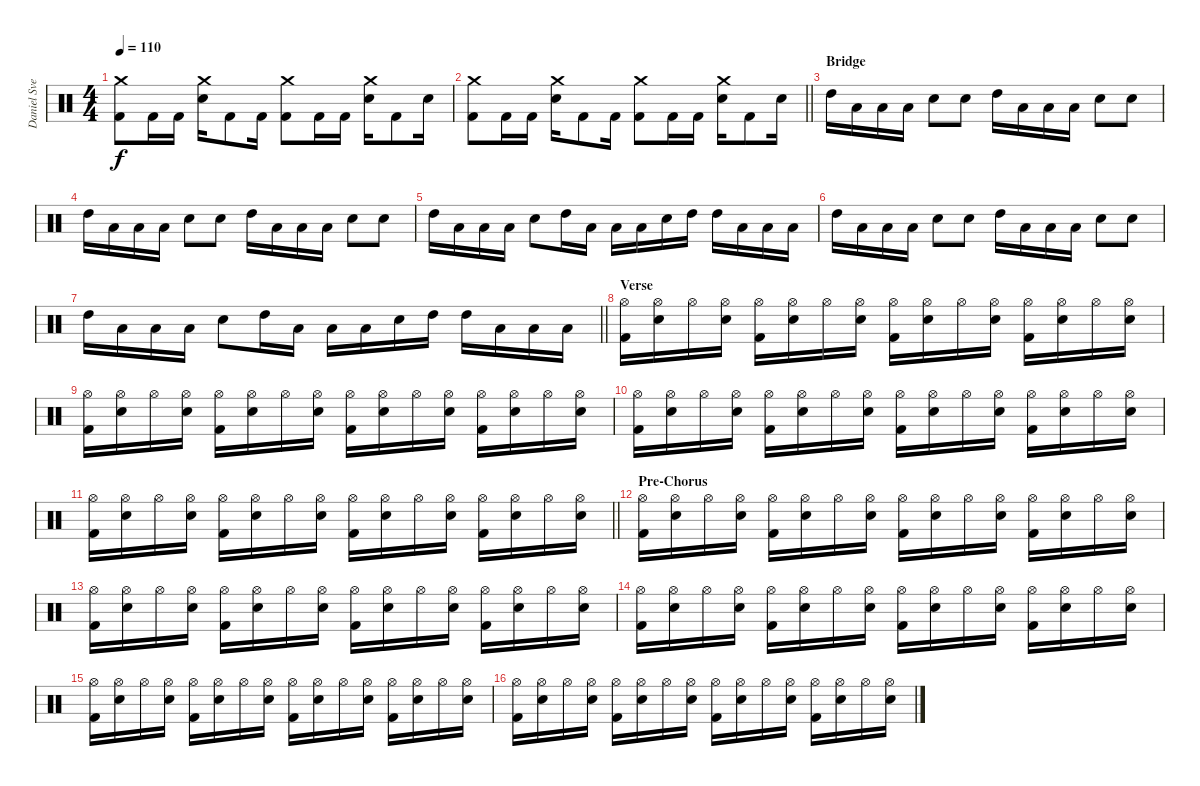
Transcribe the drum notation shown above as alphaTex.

\track ("Daniel Svennson" "Daniel Sve") {instrument percussion}
\staff {score}
\articulation defaults
\ts (4 4)
\tempo 110
\clef neutral
\ks c
("Kick (hit) 2" "Crash medium (hit)").8{dy f} "Kick (hit) 2".16 "Kick (hit) 2".16 ("Snare (hit) 2" "Crash medium (hit)").16 "Kick (hit) 2".8 "Kick (hit) 2".16 ("Kick (hit) 2" "Crash medium (hit)").8 "Kick (hit) 2".16 "Kick (hit) 2".16 ("Snare (hit) 2" "Crash medium (hit)").16 "Kick (hit) 2".8 "Snare (hit) 2".16 |
\barLineRight lightlight
("Kick (hit) 2" "Crash medium (hit)").8 "Kick (hit) 2".16 "Kick (hit) 2".16 ("Snare (hit) 2" "Crash medium (hit)").16 "Kick (hit) 2".8 "Kick (hit) 2".16 ("Kick (hit) 2" "Crash medium (hit)").8 "Kick (hit) 2".16 "Kick (hit) 2".16 ("Snare (hit) 2" "Crash medium (hit)").16 "Kick (hit) 2".8 "Snare (hit) 2".16 |
\section ("" "Bridge")
"High Tom (hit)".16 "Low Tom (hit)".16 "Low Floor Tom (hit)".16 "Low Floor Tom (hit)".16 "Snare (hit) 2".8 "Snare (hit) 2".8 "High Tom (hit)".16 "Low Tom (hit)".16 "Low Floor Tom (hit)".16 "Low Floor Tom (hit)".16 "Snare (hit) 2".8 "Snare (hit) 2".8 |
"High Tom (hit)".16 "Low Tom (hit)".16 "Low Floor Tom (hit)".16 "Low Floor Tom (hit)".16 "Snare (hit) 2".8 "Snare (hit) 2".8 "High Tom (hit)".16 "Low Tom (hit)".16 "Low Floor Tom (hit)".16 "Low Floor Tom (hit)".16 "Snare (hit) 2".8 "Snare (hit) 2".8 |
"High Tom (hit)".16 "Low Tom (hit)".16 "Low Floor Tom (hit)".16 "Low Floor Tom (hit)".16 "Snare (hit) 2".8 "High Tom (hit)".16 "Low Tom (hit)".16 "Low Floor Tom (hit)".16 "Low Floor Tom (hit)".16 "Snare (hit) 2".16 "High Tom (hit)".16 "High Tom (hit)".16 "Low Tom (hit)".16 "Low Tom (hit)".16 "Low Floor Tom (hit)".16 |
"High Tom (hit)".16 "Low Tom (hit)".16 "Low Floor Tom (hit)".16 "Low Floor Tom (hit)".16 "Snare (hit) 2".8 "Snare (hit) 2".8 "High Tom (hit)".16 "Low Tom (hit)".16 "Low Floor Tom (hit)".16 "Low Floor Tom (hit)".16 "Snare (hit) 2".8 "Snare (hit) 2".8 |
\barLineRight lightlight "High Tom (hit)".16 "Low Tom (hit)".16 "Low Floor Tom (hit)".16 "Low Floor Tom (hit)".16 "Snare (hit) 2".8 "High Tom (hit)".16 "Low Tom (hit)".16 "Low Floor Tom (hit)".16 "Low Floor Tom (hit)".16 "Snare (hit) 2".16 "High Tom (hit)".16 "High Tom (hit)".16 "Low Tom (hit)".16 "Low Tom (hit)".16 "Low Floor Tom (hit)".16
|
\section ("" "Verse")
("Hi-Hat (open)" "Kick (hit) 2").16 ("Hi-Hat (open)" "Snare (hit) 2").16 "Hi-Hat (open)".16 ("Hi-Hat (open)" "Snare (hit) 2").16 ("Hi-Hat (open)" "Kick (hit) 2").16 ("Hi-Hat (open)" "Snare (hit) 2").16 "Hi-Hat (open)".16 ("Hi-Hat (open)" "Snare (hit) 2").16 ("Hi-Hat (open)" "Kick (hit) 2").16 ("Hi-Hat (open)" "Snare (hit) 2").16 "Hi-Hat (open)".16 ("Hi-Hat (open)" "Snare (hit) 2").16 ("Hi-Hat (open)" "Kick (hit) 2").16 ("Hi-Hat (open)" "Snare (hit) 2").16 "Hi-Hat (open)".16 ("Hi-Hat (open)" "Snare (hit) 2").16 |
("Hi-Hat (open)" "Kick (hit) 2").16 ("Hi-Hat (open)" "Snare (hit) 2").16 "Hi-Hat (open)".16 ("Hi-Hat (open)" "Snare (hit) 2").16 ("Hi-Hat (open)" "Kick (hit) 2").16 ("Hi-Hat (open)" "Snare (hit) 2").16 "Hi-Hat (open)".16 ("Hi-Hat (open)" "Snare (hit) 2").16 ("Hi-Hat (open)" "Kick (hit) 2").16 ("Hi-Hat (open)" "Snare (hit) 2").16 "Hi-Hat (open)".16 ("Hi-Hat (open)" "Snare (hit) 2").16 ("Hi-Hat (open)" "Kick (hit) 2").16 ("Hi-Hat (open)" "Snare (hit) 2").16 "Hi-Hat (open)".16 ("Hi-Hat (open)" "Snare (hit) 2").16 |
("Hi-Hat (open)" "Kick (hit) 2").16 ("Hi-Hat (open)" "Snare (hit) 2").16 "Hi-Hat (open)".16 ("Hi-Hat (open)" "Snare (hit) 2").16 ("Hi-Hat (open)" "Kick (hit) 2").16 ("Hi-Hat (open)" "Snare (hit) 2").16 "Hi-Hat (open)".16 ("Hi-Hat (open)" "Snare (hit) 2").16 ("Hi-Hat (open)" "Kick (hit) 2").16 ("Hi-Hat (open)" "Snare (hit) 2").16 "Hi-Hat (open)".16 ("Hi-Hat (open)" "Snare (hit) 2").16 ("Hi-Hat (open)" "Kick (hit) 2").16 ("Hi-Hat (open)" "Snare (hit) 2").16 "Hi-Hat (open)".16 ("Hi-Hat (open)" "Snare (hit) 2").16 |
\barLineRight lightlight
("Hi-Hat (open)" "Kick (hit) 2").16 ("Hi-Hat (open)" "Snare (hit) 2").16 "Hi-Hat (open)".16 ("Hi-Hat (open)" "Snare (hit) 2").16 ("Hi-Hat (open)" "Kick (hit) 2").16 ("Hi-Hat (open)" "Snare (hit) 2").16 "Hi-Hat (open)".16 ("Hi-Hat (open)" "Snare (hit) 2").16 ("Hi-Hat (open)" "Kick (hit) 2").16 ("Hi-Hat (open)" "Snare (hit) 2").16 "Hi-Hat (open)".16 ("Hi-Hat (open)" "Snare (hit) 2").16 ("Hi-Hat (open)" "Kick (hit) 2").16 ("Hi-Hat (open)" "Snare (hit) 2").16 "Hi-Hat (open)".16 ("Hi-Hat (open)" "Snare (hit) 2").16 |
\section ("" "Pre-Chorus")
("Hi-Hat (open)" "Kick (hit) 2").16 ("Hi-Hat (open)" "Snare (hit) 2").16 "Hi-Hat (open)".16 ("Hi-Hat (open)" "Snare (hit) 2").16 ("Hi-Hat (open)" "Kick (hit) 2").16 ("Hi-Hat (open)" "Snare (hit) 2").16 "Hi-Hat (open)".16 ("Hi-Hat (open)" "Snare (hit) 2").16 ("Hi-Hat (open)" "Kick (hit) 2").16 ("Hi-Hat (open)" "Snare (hit) 2").16 "Hi-Hat (open)".16 ("Hi-Hat (open)" "Snare (hit) 2").16 ("Hi-Hat (open)" "Kick (hit) 2").16 ("Hi-Hat (open)" "Snare (hit) 2").16 "Hi-Hat (open)".16 ("Hi-Hat (open)" "Snare (hit) 2").16 |
("Hi-Hat (open)" "Kick (hit) 2").16 ("Hi-Hat (open)" "Snare (hit) 2").16 "Hi-Hat (open)".16 ("Hi-Hat (open)" "Snare (hit) 2").16 ("Hi-Hat (open)" "Kick (hit) 2").16 ("Hi-Hat (open)" "Snare (hit) 2").16 "Hi-Hat (open)".16 ("Hi-Hat (open)" "Snare (hit) 2").16 ("Hi-Hat (open)" "Kick (hit) 2").16 ("Hi-Hat (open)" "Snare (hit) 2").16 "Hi-Hat (open)".16 ("Hi-Hat (open)" "Snare (hit) 2").16 ("Hi-Hat (open)" "Kick (hit) 2").16 ("Hi-Hat (open)" "Snare (hit) 2").16 "Hi-Hat (open)".16 ("Hi-Hat (open)" "Snare (hit) 2").16 |
("Hi-Hat (open)" "Kick (hit) 2").16 ("Hi-Hat (open)" "Snare (hit) 2").16 "Hi-Hat (open)".16 ("Hi-Hat (open)" "Snare (hit) 2").16 ("Hi-Hat (open)" "Kick (hit) 2").16 ("Hi-Hat (open)" "Snare (hit) 2").16 "Hi-Hat (open)".16 ("Hi-Hat (open)" "Snare (hit) 2").16 ("Hi-Hat (open)" "Kick (hit) 2").16 ("Hi-Hat (open)" "Snare (hit) 2").16 "Hi-Hat (open)".16 ("Hi-Hat (open)" "Snare (hit) 2").16 ("Hi-Hat (open)" "Kick (hit) 2").16 ("Hi-Hat (open)" "Snare (hit) 2").16 "Hi-Hat (open)".16 ("Hi-Hat (open)" "Snare (hit) 2").16 |
("Hi-Hat (open)" "Kick (hit) 2").16 ("Hi-Hat (open)" "Snare (hit) 2").16 "Hi-Hat (open)".16 ("Hi-Hat (open)" "Snare (hit) 2").16 ("Hi-Hat (open)" "Kick (hit) 2").16 ("Hi-Hat (open)" "Snare (hit) 2").16 "Hi-Hat (open)".16 ("Hi-Hat (open)" "Snare (hit) 2").16 ("Hi-Hat (open)" "Kick (hit) 2").16 ("Hi-Hat (open)" "Snare (hit) 2").16 "Hi-Hat (open)".16 ("Hi-Hat (open)" "Snare (hit) 2").16 ("Hi-Hat (open)" "Kick (hit) 2").16 ("Hi-Hat (open)" "Snare (hit) 2").16 "Hi-Hat (open)".16 ("Hi-Hat (open)" "Snare (hit) 2").16 |
("Hi-Hat (open)" "Kick (hit) 2").16 ("Hi-Hat (open)" "Snare (hit) 2").16 "Hi-Hat (open)".16 ("Hi-Hat (open)" "Snare (hit) 2").16 ("Hi-Hat (open)" "Kick (hit) 2").16 ("Hi-Hat (open)" "Snare (hit) 2").16 "Hi-Hat (open)".16 ("Hi-Hat (open)" "Snare (hit) 2").16 ("Hi-Hat (open)" "Kick (hit) 2").16 ("Hi-Hat (open)" "Snare (hit) 2").16 "Hi-Hat (open)".16 ("Hi-Hat (open)" "Snare (hit) 2").16 ("Hi-Hat (open)" "Kick (hit) 2").16 ("Hi-Hat (open)" "Snare (hit) 2").16 "Hi-Hat (open)".16 ("Hi-Hat (open)" "Snare (hit) 2").16
